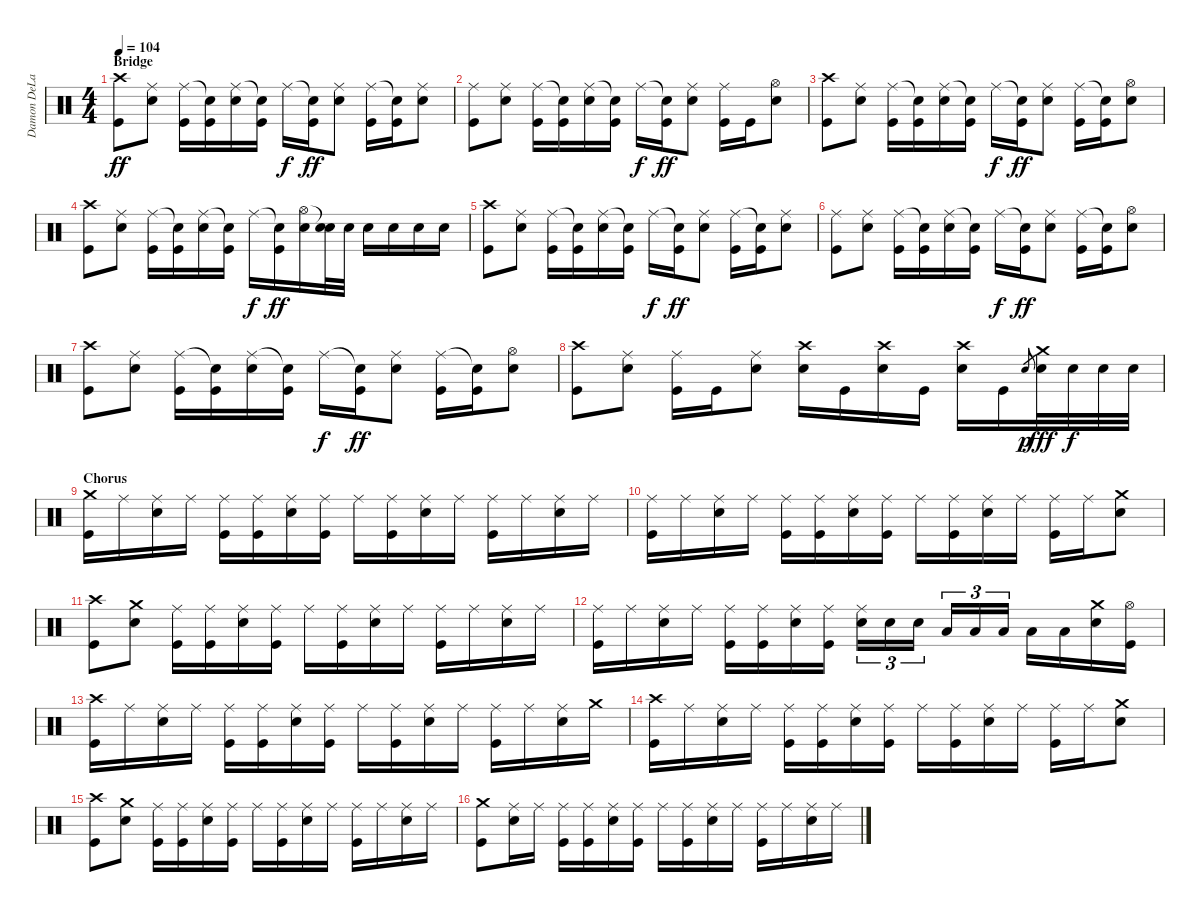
\track ("Damon DeLapaz - Drums" "Damon DeLa") {instrument percussion}
\staff {score}
\articulation defaults
\ts (4 4)
\section ("" "Bridge")
\tempo 104
\clef neutral
\ks c
("Crash high (hit)" "Kick (hit)").8{dy ff} ("Ride (middle)" "Snare (hit) 2").8 ("Ride (middle)" "Kick (hit)").16 ("Snare (hit)"{t} "Kick (hit)").16 ("Ride (middle)" "Snare (hit) 2").16 ("Snare (hit)"{t} "Kick (hit)").16 "Ride (middle)".16{dy f} ("Snare (hit)"{t} "Kick (hit)").16{dy ff} ("Ride (middle)" "Snare (hit) 2").8 ("Ride (middle)" "Kick (hit)").16 ("Snare (hit)"{t} "Kick (hit)").16 ("Ride (middle)" "Snare (hit) 2").8 |
("Ride (middle)" "Kick (hit)").8 ("Ride (middle)" "Snare (hit) 2").8 ("Ride (middle)" "Kick (hit)").16 ("Snare (hit)"{t} "Kick (hit)").16 ("Ride (middle)" "Snare (hit) 2").16 ("Snare (hit)"{t} "Kick (hit)").16 "Ride (middle)".16{dy f} ("Snare (hit)"{t} "Kick (hit)").16{dy ff} ("Ride (middle)" "Snare (hit) 2").8 ("Ride (middle)" "Kick (hit)").16 "Kick (hit)".16 ("Hi-Hat (open)" "Snare (hit) 2").8 |
("Crash high (hit)" "Kick (hit)").8 ("Ride (middle)" "Snare (hit) 2").8 ("Ride (middle)" "Kick (hit)").16 ("Snare (hit)"{t} "Kick (hit)").16 ("Ride (middle)" "Snare (hit) 2").16 ("Snare (hit)"{t} "Kick (hit)").16 "Ride (middle)".16{dy f} ("Snare (hit)"{t} "Kick (hit)").16{dy ff} ("Ride (middle)" "Snare (hit) 2").8 ("Ride (middle)" "Kick (hit)").16 ("Snare (hit)"{t} "Kick (hit)").16 ("Hi-Hat (open)" "Snare (hit) 2").8 |
("Crash high (hit)" "Kick (hit)").8 ("Ride (middle)" "Snare (hit) 2").8 ("Ride (middle)" "Kick (hit)").16 ("Snare (hit)"{t} "Kick (hit)").16 ("Ride (middle)" "Snare (hit) 2").16 ("Snare (hit)"{t} "Kick (hit)").16 "Ride (middle)".16{dy f} ("Snare (hit)"{t} "Kick (hit)").16{dy ff} ("Hi-Hat (open)" "Snare (hit) 2").16 ("Snare (hit)"{t} "Snare (hit) 2").32 "Snare (hit) 2".32 "Snare (hit) 2".16 "Snare (hit) 2".16 "Snare (hit) 2".16 "Snare (hit) 2".16 |
("Crash high (hit)" "Kick (hit)").8 ("Ride (middle)" "Snare (hit) 2").8 ("Ride (middle)" "Kick (hit)").16 ("Snare (hit)"{t} "Kick (hit)").16 ("Ride (middle)" "Snare (hit) 2").16 ("Snare (hit)"{t} "Kick (hit)").16 "Ride (middle)".16{dy f} ("Snare (hit)"{t} "Kick (hit)").16{dy ff} ("Ride (middle)" "Snare (hit) 2").8 ("Ride (middle)" "Kick (hit)").16 ("Snare (hit)"{t} "Kick (hit)").16 ("Ride (middle)" "Snare (hit) 2").8 |
("Ride (middle)" "Kick (hit)").8 ("Ride (middle)" "Snare (hit) 2").8 ("Ride (middle)" "Kick (hit)").16 ("Snare (hit)"{t} "Kick (hit)").16 ("Ride (middle)" "Snare (hit) 2").16 ("Snare (hit)"{t} "Kick (hit)").16 "Ride (middle)".16{dy f} ("Snare (hit)"{t} "Kick (hit)").16{dy ff} ("Ride (middle)" "Snare (hit) 2").8 ("Ride (middle)" "Kick (hit)").16 ("Snare (hit)"{t} "Kick (hit)").16 ("Hi-Hat (open)" "Snare (hit) 2").8 |
("Crash high (hit)" "Kick (hit)").8 ("Ride (middle)" "Snare (hit) 2").8 ("Ride (middle)" "Kick (hit)").16 ("Snare (hit)"{t} "Kick (hit)").16 ("Ride (middle)" "Snare (hit) 2").16 ("Snare (hit)"{t} "Kick (hit)").16 "Ride (middle)".16{dy f} ("Snare (hit)"{t} "Kick (hit)").16{dy ff} ("Ride (middle)" "Snare (hit) 2").8 ("Ride (middle)" "Kick (hit)").16 ("Snare (hit)"{t} "Kick (hit)").16 ("Hi-Hat (open)" "Snare (hit) 2").8 |
("Crash high (hit)" "Kick (hit)").8 ("Ride (middle)" "Snare (hit) 2").8 ("Ride (middle)" "Kick (hit)").16 "Kick (hit)".16 ("Ride (middle)" "Snare (hit) 2").8 ("Crash high (hit)" "Snare (hit) 2").16 "Kick (hit)".16 ("Crash high (hit)" "Snare (hit) 2").16 "Kick (hit)".16 ("Crash high (hit)" "Snare (hit) 2").16 "Kick (hit)".16 "Snare (hit) 2".8{gr dy p} ("Crash medium (hit)" "Snare (hit) 2").32{dy fff} "Snare (hit) 2".32{dy f} "Snare (hit) 2".32 "Snare (hit) 2".32 |
\section ("" "Chorus")
("Crash medium (hit)" "Kick (hit)").16 "Ride (middle)".16 ("Ride (middle)" "Snare (hit) 2").16 "Ride (middle)".16 ("Ride (middle)" "Kick (hit)").16 ("Ride (middle)" "Kick (hit)").16 ("Ride (middle)" "Snare (hit) 2").16 ("Ride (middle)" "Kick (hit)").16 "Ride (middle)".16 ("Ride (middle)" "Kick (hit)").16 ("Ride (middle)" "Snare (hit) 2").16 "Ride (middle)".16 ("Ride (middle)" "Kick (hit)").16 "Ride (middle)".16 ("Ride (middle)" "Snare (hit) 2").16 "Ride (middle)".16 |
("Ride (middle)" "Kick (hit)").16 "Ride (middle)".16 ("Ride (middle)" "Snare (hit) 2").16 "Ride (middle)".16 ("Ride (middle)" "Kick (hit)").16 ("Ride (middle)" "Kick (hit)").16 ("Ride (middle)" "Snare (hit) 2").16 ("Ride (middle)" "Kick (hit)").16 "Ride (middle)".16 ("Ride (middle)" "Kick (hit)").16 ("Ride (middle)" "Snare (hit) 2").16 "Ride (middle)".16 ("Ride (middle)" "Kick (hit)").16 "Ride (middle)".16 ("Crash medium (hit)" "Snare (hit) 2").8 |
("Crash high (hit)" "Kick (hit)").8 ("Crash medium (hit)" "Snare (hit) 2").8 ("Ride (middle)" "Kick (hit)").16 ("Ride (middle)" "Kick (hit)").16 ("Ride (middle)" "Snare (hit) 2").16 ("Ride (middle)" "Kick (hit)").16 "Ride (middle)".16 ("Ride (middle)" "Kick (hit)").16 ("Ride (middle)" "Snare (hit) 2").16 "Ride (middle)".16 ("Ride (middle)" "Kick (hit)").16 "Ride (middle)".16 ("Ride (middle)" "Snare (hit) 2").16 "Ride (middle)".16 |
("Ride (middle)" "Kick (hit)").16 "Ride (middle)".16 ("Ride (middle)" "Snare (hit) 2").16 "Ride (middle)".16 ("Ride (middle)" "Kick (hit)").16 ("Ride (middle)" "Kick (hit)").16 ("Ride (middle)" "Snare (hit) 2").16 ("Ride (middle)" "Kick (hit)").16 ("Ride (middle)" "Snare (hit) 2").16{tu (3 2)} "Snare (hit) 2".16{tu (3 2)} "Snare (hit) 2".16{tu (3 2)} "Low Tom (hit)".16{tu (3 2)} "Low Tom (hit)".16{tu (3 2)} "Low Tom (hit)".16{tu (3 2)} "Low Floor Tom (hit)".16 "Low Floor Tom (hit)".16 ("Crash medium (hit)" "Snare (hit) 2").16 ("Hi-Hat (open)" "Kick (hit)").16 |
("Crash high (hit)" "Kick (hit)").16 "Ride (middle)".16 ("Ride (middle)" "Snare (hit) 2").16 "Ride (middle)".16 ("Ride (middle)" "Kick (hit)").16 ("Ride (middle)" "Kick (hit)").16 ("Ride (middle)" "Snare (hit) 2").16 ("Ride (middle)" "Kick (hit)").16 "Ride (middle)".16 ("Ride (middle)" "Kick (hit)").16 ("Ride (middle)" "Snare (hit) 2").16 "Ride (middle)".16 ("Ride (middle)" "Kick (hit)").16 "Ride (middle)".16 ("Ride (middle)" "Snare (hit) 2").16 "Crash medium (hit)".16 |
("Crash high (hit)" "Kick (hit)").16 "Ride (middle)".16 ("Ride (middle)" "Snare (hit) 2").16 "Ride (middle)".16 ("Ride (middle)" "Kick (hit)").16 ("Ride (middle)" "Kick (hit)").16 ("Ride (middle)" "Snare (hit) 2").16 ("Ride (middle)" "Kick (hit)").16 "Ride (middle)".16 ("Ride (middle)" "Kick (hit)").16 ("Ride (middle)" "Snare (hit) 2").16 "Ride (middle)".16 ("Ride (middle)" "Kick (hit)").16 "Ride (middle)".16 ("Crash medium (hit)" "Snare (hit) 2").8 |
("Crash high (hit)" "Kick (hit)").8 ("Crash medium (hit)" "Snare (hit) 2").8 ("Ride (middle)" "Kick (hit)").16 ("Ride (middle)" "Kick (hit)").16 ("Ride (middle)" "Snare (hit) 2").16 ("Ride (middle)" "Kick (hit)").16 "Ride (middle)".16 ("Ride (middle)" "Kick (hit)").16 ("Ride (middle)" "Snare (hit) 2").16 "Ride (middle)".16 ("Ride (middle)" "Kick (hit)").16 "Ride (middle)".16 ("Ride (middle)" "Snare (hit) 2").16 "Ride (middle)".16 |
("Crash medium (hit)" "Kick (hit)").8 ("Ride (middle)" "Snare (hit) 2").16 "Ride (middle)".16 ("Ride (middle)" "Kick (hit)").16 ("Ride (middle)" "Kick (hit)").16 ("Ride (middle)" "Snare (hit) 2").16 ("Ride (middle)" "Kick (hit)").16 "Ride (middle)".16 ("Ride (middle)" "Kick (hit)").16 ("Ride (middle)" "Snare (hit) 2").16 "Ride (middle)".16 ("Ride (middle)" "Kick (hit)").16 "Ride (middle)".16 ("Ride (middle)" "Snare (hit) 2").16 "Ride (middle)".16
